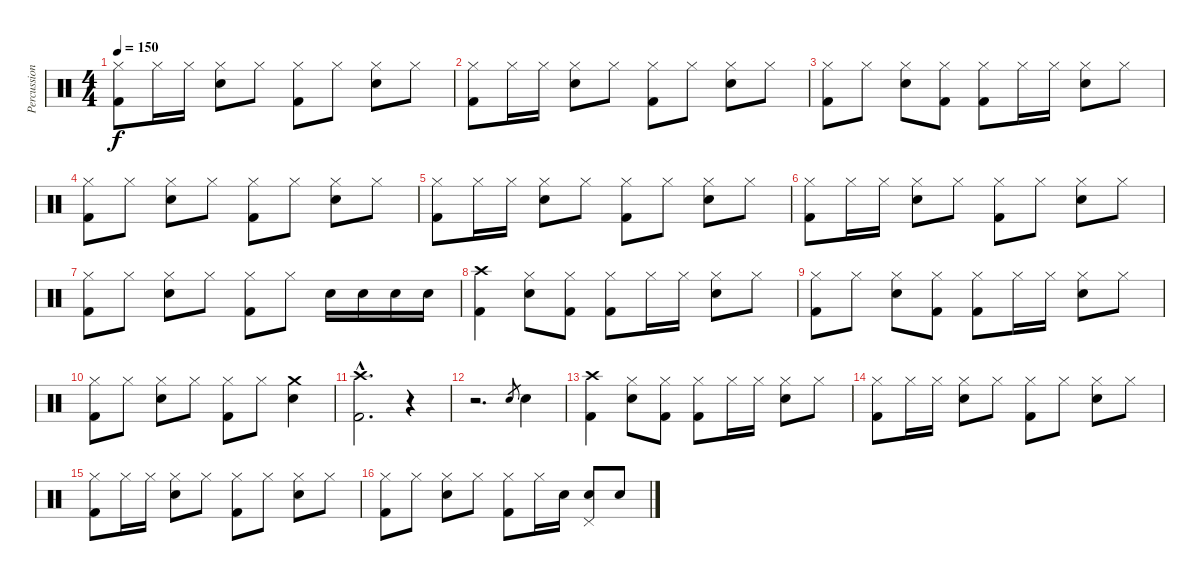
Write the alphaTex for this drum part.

\track ("Percussion" "Percussion") {instrument percussion}
\staff {score}
\articulation defaults
\ts (4 4)
\tempo 150
\clef neutral
\ks c
("Hi-Hat (closed)" "Kick (hit) 2").8{dy f} "Hi-Hat (closed)".16 "Hi-Hat (closed)".16 ("Hi-Hat (closed)" "Snare (hit) 2").8 "Hi-Hat (closed)".8 ("Hi-Hat (closed)" "Kick (hit) 2").8 "Hi-Hat (closed)".8 ("Hi-Hat (closed)" "Snare (hit) 2").8 "Hi-Hat (closed)".8 |
("Hi-Hat (closed)" "Kick (hit) 2").8 "Hi-Hat (closed)".16 "Hi-Hat (closed)".16 ("Hi-Hat (closed)" "Snare (hit) 2").8 "Hi-Hat (closed)".8 ("Hi-Hat (closed)" "Kick (hit) 2").8 "Hi-Hat (closed)".8 ("Hi-Hat (closed)" "Snare (hit) 2").8 "Hi-Hat (closed)".8 |
("Hi-Hat (closed)" "Kick (hit) 2").8 "Hi-Hat (closed)".8 ("Hi-Hat (closed)" "Snare (hit) 2").8 ("Hi-Hat (closed)" "Kick (hit) 2").8 ("Hi-Hat (closed)" "Kick (hit) 2").8 "Hi-Hat (closed)".16 "Hi-Hat (closed)".16 ("Hi-Hat (closed)" "Snare (hit) 2").8 "Hi-Hat (closed)".8 |
("Hi-Hat (closed)" "Kick (hit) 2").8 "Hi-Hat (closed)".8 ("Hi-Hat (closed)" "Snare (hit) 2").8 "Hi-Hat (closed)".8 ("Hi-Hat (closed)" "Kick (hit) 2").8 "Hi-Hat (closed)".8 ("Hi-Hat (closed)" "Snare (hit) 2").8 "Hi-Hat (closed)".8 |
("Hi-Hat (closed)" "Kick (hit) 2").8 "Hi-Hat (closed)".16 "Hi-Hat (closed)".16 ("Hi-Hat (closed)" "Snare (hit) 2").8 "Hi-Hat (closed)".8 ("Hi-Hat (closed)" "Kick (hit) 2").8 "Hi-Hat (closed)".8 ("Hi-Hat (closed)" "Snare (hit) 2").8 "Hi-Hat (closed)".8 |
("Hi-Hat (closed)" "Kick (hit) 2").8 "Hi-Hat (closed)".16 "Hi-Hat (closed)".16 ("Hi-Hat (closed)" "Snare (hit) 2").8 "Hi-Hat (closed)".8 ("Hi-Hat (closed)" "Kick (hit) 2").8 "Hi-Hat (closed)".8 ("Hi-Hat (closed)" "Snare (hit) 2").8 "Hi-Hat (closed)".8 |
("Hi-Hat (closed)" "Kick (hit) 2").8 "Hi-Hat (closed)".8 ("Hi-Hat (closed)" "Snare (hit) 2").8 "Hi-Hat (closed)".8 ("Hi-Hat (closed)" "Kick (hit) 2").8 "Hi-Hat (closed)".8 "Snare (hit) 2".16 "Snare (hit) 2".16 "Snare (hit) 2".16 "Snare (hit) 2".16 |
("Crash high (hit)" "Kick (hit) 2").4 ("Hi-Hat (closed)" "Snare (hit) 2").8 ("Hi-Hat (closed)" "Kick (hit) 2").8 ("Hi-Hat (closed)" "Kick (hit) 2").8 "Hi-Hat (closed)".16 "Hi-Hat (closed)".16 ("Hi-Hat (closed)" "Snare (hit) 2").8 "Hi-Hat (closed)".8 |
("Hi-Hat (closed)" "Kick (hit) 2").8 "Hi-Hat (closed)".8 ("Hi-Hat (closed)" "Snare (hit) 2").8 ("Hi-Hat (closed)" "Kick (hit) 2").8 ("Hi-Hat (closed)" "Kick (hit) 2").8 "Hi-Hat (closed)".16 "Hi-Hat (closed)".16 ("Hi-Hat (closed)" "Snare (hit) 2").8 "Hi-Hat (closed)".8 |
("Hi-Hat (closed)" "Kick (hit) 2").8 "Hi-Hat (closed)".8 ("Hi-Hat (closed)" "Snare (hit) 2").8 "Hi-Hat (closed)".8 ("Hi-Hat (closed)" "Kick (hit) 2").8 "Hi-Hat (closed)".8 ("Crash medium (hit)" "Snare (hit) 2").4 |
("Crash high (hit)"{hac} "Kick (hit) 2"{hac}).2{d} r.4 |
r.2{d} "Snare (hit) 2".8{gr} "Snare (hit) 2".4 |
("Crash high (hit)" "Kick (hit) 2").4 ("Hi-Hat (closed)" "Snare (hit) 2").8 ("Hi-Hat (closed)" "Kick (hit) 2").8 ("Hi-Hat (closed)" "Kick (hit) 2").8 "Hi-Hat (closed)".16 "Hi-Hat (closed)".16 ("Hi-Hat (closed)" "Snare (hit) 2").8 "Hi-Hat (closed)".8 |
("Hi-Hat (closed)" "Kick (hit) 2").8 "Hi-Hat (closed)".16 "Hi-Hat (closed)".16 ("Hi-Hat (closed)" "Snare (hit) 2").8 "Hi-Hat (closed)".8 ("Hi-Hat (closed)" "Kick (hit) 2").8 "Hi-Hat (closed)".8 ("Hi-Hat (closed)" "Snare (hit) 2").8 "Hi-Hat (closed)".8 |
("Hi-Hat (closed)" "Kick (hit) 2").8 "Hi-Hat (closed)".16 "Hi-Hat (closed)".16 ("Hi-Hat (closed)" "Snare (hit) 2").8 "Hi-Hat (closed)".8 ("Hi-Hat (closed)" "Kick (hit) 2").8 "Hi-Hat (closed)".8 ("Hi-Hat (closed)" "Snare (hit) 2").8 "Hi-Hat (closed)".8 |
("Hi-Hat (closed)" "Kick (hit) 2").8 "Hi-Hat (closed)".8 ("Hi-Hat (closed)" "Snare (hit) 2").8 "Hi-Hat (closed)".8 ("Hi-Hat (closed)" "Kick (hit) 2").8 "Hi-Hat (closed)".16 "Snare (hit) 2".16 ("Pedal Hi-Hat (hit)" "Snare (hit) 2").8 "Snare (hit) 2".8
